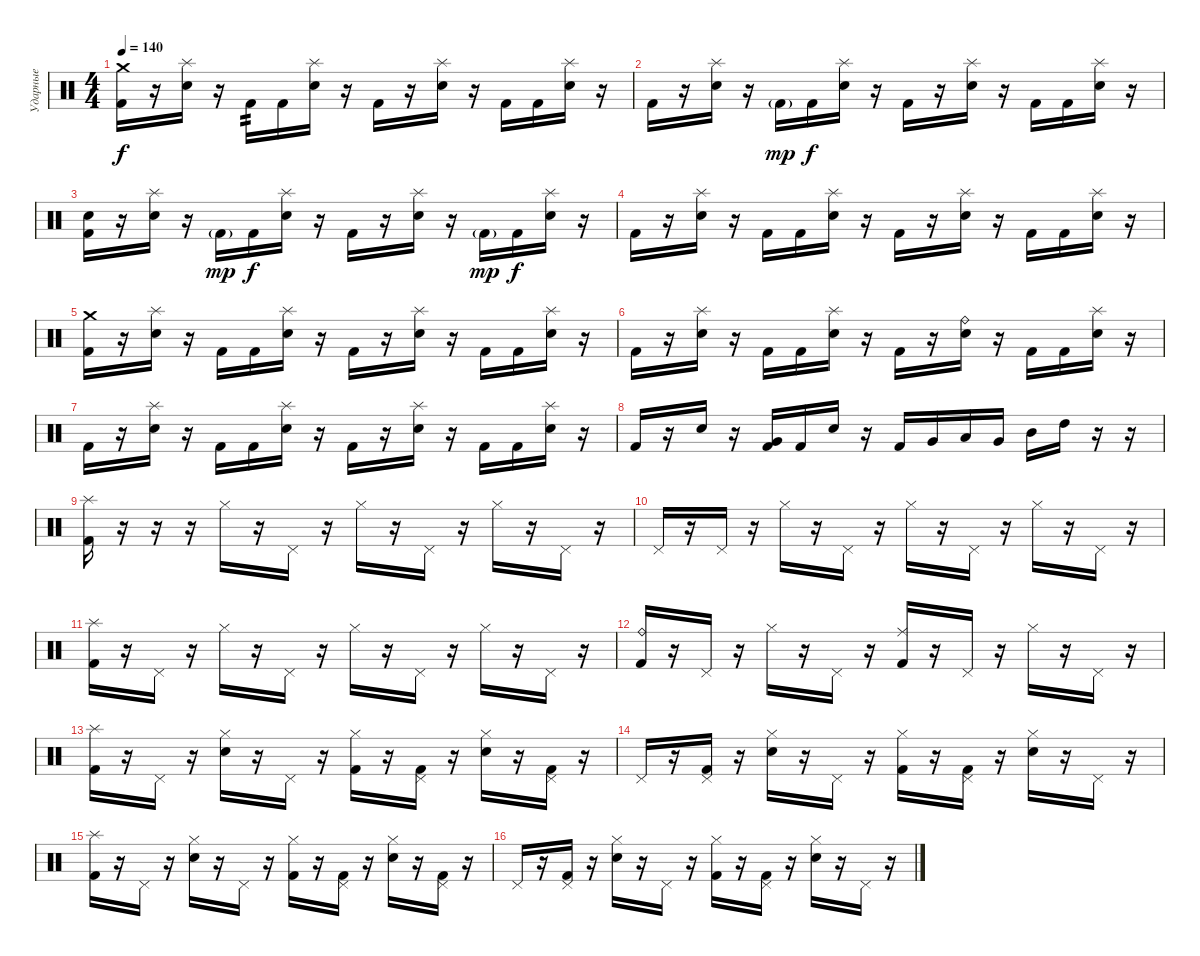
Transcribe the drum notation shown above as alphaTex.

\track ("Ударные" "Ударные") {instrument percussion bank 2}
\staff {score}
\articulation defaults
\ts (4 4)
\tempo 140
\clef neutral
\ks c
("Crash medium (hit)" "Kick (hit) 2").16{dy f} r.16 ("Splash (hit)" "Electric Snare (hit)").16 r.16 "Kick (hit) 2".16{tp 2} "Kick (hit) 2".16 ("Splash (hit)" "Electric Snare (hit)").16 r.16 "Kick (hit) 2".16 r.16 ("Splash (hit)" "Electric Snare (hit)").16 r.16 "Kick (hit) 2".16 "Kick (hit) 2".16 ("Splash (hit)" "Electric Snare (hit)").16 r.16 |
"Kick (hit) 2".16 r.16 ("Splash (hit)" "Electric Snare (hit)").16 r.16 "Kick (hit) 2"{g}.16{dy mp} "Kick (hit) 2".16{dy f} ("Splash (hit)" "Electric Snare (hit)").16 r.16 "Kick (hit) 2".16 r.16 ("Splash (hit)" "Electric Snare (hit)").16 r.16 "Kick (hit) 2".16 "Kick (hit) 2".16 ("Splash (hit)" "Electric Snare (hit)").16 r.16 |
("Snare (hit)" "Kick (hit) 2").16 r.16 ("Splash (hit)" "Electric Snare (hit)").16 r.16 "Kick (hit) 2"{g}.16{dy mp} "Kick (hit) 2".16{dy f} ("Splash (hit)" "Electric Snare (hit)").16 r.16 "Kick (hit) 2".16 r.16 ("Splash (hit)" "Electric Snare (hit)").16 r.16 "Kick (hit) 2"{g}.16{dy mp} "Kick (hit) 2".16{dy f} ("Splash (hit)" "Electric Snare (hit)").16 r.16 |
"Kick (hit) 2".16 r.16 ("Splash (hit)" "Electric Snare (hit)").16 r.16 "Kick (hit) 2".16 "Kick (hit) 2".16 ("Splash (hit)" "Electric Snare (hit)").16 r.16 "Kick (hit) 2".16 r.16 ("Splash (hit)" "Electric Snare (hit)").16 r.16 "Kick (hit) 2".16 "Kick (hit) 2".16 ("Splash (hit)" "Electric Snare (hit)").16 r.16 |
("Crash medium (hit)" "Kick (hit) 2").16 r.16 ("Splash (hit)" "Electric Snare (hit)").16 r.16 "Kick (hit) 2".16 "Kick (hit) 2".16 ("Splash (hit)" "Electric Snare (hit)").16 r.16 "Kick (hit) 2".16 r.16 ("Splash (hit)" "Electric Snare (hit)").16 r.16 "Kick (hit) 2".16 "Kick (hit) 2".16 ("Splash (hit)" "Electric Snare (hit)").16 r.16 |
"Kick (hit) 2".16 r.16 ("Splash (hit)" "Electric Snare (hit)").16 r.16 "Kick (hit) 2".16 "Kick (hit) 2".16 ("Splash (hit)" "Electric Snare (hit)").16 r.16 "Kick (hit) 2".16 r.16 ("Ride (bell)" "Electric Snare (hit)").16 r.16 "Kick (hit) 2".16 "Kick (hit) 2".16 ("Splash (hit)" "Electric Snare (hit)").16 r.16 |
"Kick (hit) 2".16 r.16 ("Splash (hit)" "Electric Snare (hit)").16 r.16 "Kick (hit) 2".16 "Kick (hit) 2".16 ("Splash (hit)" "Electric Snare (hit)").16 r.16 "Kick (hit) 2".16 r.16 ("Splash (hit)" "Electric Snare (hit)").16 r.16 "Kick (hit) 2".16 "Kick (hit) 2".16 ("Splash (hit)" "Electric Snare (hit)").16 r.16 |
"Kick (hit) 2".16 r.16 "Electric Snare (hit)".16 r.16 ("Very Low Tom (hit)" "Kick (hit) 2").16 "Kick (hit) 2".16 "Electric Snare (hit)".16 r.16 "Kick (hit) 2".16 "Very Low Tom (hit)".16 "Low Tom (hit)".16 "Very Low Tom (hit)".16 "Mid Tom (hit)".16 "High Tom (hit)".16 r.16 r.16 |
("Splash (hit)" "Kick (hit) 2").16 r.16 r.16 r.16 "Hi-Hat (closed)".16 r.16 "Pedal Hi-Hat (hit)".16 r.16 "Hi-Hat (closed)".16 r.16 "Pedal Hi-Hat (hit)".16 r.16 "Hi-Hat (closed)".16 r.16 "Pedal Hi-Hat (hit)".16 r.16 |
"Pedal Hi-Hat (hit)".16 r.16 "Pedal Hi-Hat (hit)".16 r.16 "Hi-Hat (closed)".16 r.16 "Pedal Hi-Hat (hit)".16 r.16 "Hi-Hat (closed)".16 r.16 "Pedal Hi-Hat (hit)".16 r.16 "Hi-Hat (closed)".16 r.16 "Pedal Hi-Hat (hit)".16 r.16 |
("Splash (hit)" "Kick (hit) 2").16 r.16 "Pedal Hi-Hat (hit)".16 r.16 "Hi-Hat (closed)".16 r.16 "Pedal Hi-Hat (hit)".16 r.16 "Hi-Hat (closed)".16 r.16 "Pedal Hi-Hat (hit)".16 r.16 "Hi-Hat (closed)".16 r.16 "Pedal Hi-Hat (hit)".16 r.16 |
("Ride (bell)" "Kick (hit) 2").16 r.16 "Pedal Hi-Hat (hit)".16 r.16 "Hi-Hat (closed)".16 r.16 "Pedal Hi-Hat (hit)".16 r.16 ("Ride (middle)" "Kick (hit) 2").16 r.16 "Pedal Hi-Hat (hit)".16 r.16 "Hi-Hat (closed)".16 r.16 "Pedal Hi-Hat (hit)".16 r.16 |
("Splash (hit)" "Kick (hit) 2").16 r.16 "Pedal Hi-Hat (hit)".16 r.16 ("Hi-Hat (closed)" "Electric Snare (hit)").16 r.16 "Pedal Hi-Hat (hit)".16 r.16 ("Hi-Hat (closed)" "Kick (hit) 2").16 r.16 ("Pedal Hi-Hat (hit)" "Kick (hit) 2").16 r.16 ("Hi-Hat (closed)" "Electric Snare (hit)").16 r.16 ("Pedal Hi-Hat (hit)" "Kick (hit) 2").16 r.16 |
"Pedal Hi-Hat (hit)".16 r.16 ("Pedal Hi-Hat (hit)" "Kick (hit) 2").16 r.16 ("Hi-Hat (closed)" "Electric Snare (hit)").16 r.16 "Pedal Hi-Hat (hit)".16 r.16 ("Hi-Hat (closed)" "Kick (hit) 2").16 r.16 ("Pedal Hi-Hat (hit)" "Kick (hit) 2").16 r.16 ("Hi-Hat (closed)" "Electric Snare (hit)").16 r.16 "Pedal Hi-Hat (hit)".16 r.16 |
("Splash (hit)" "Kick (hit) 2").16 r.16 "Pedal Hi-Hat (hit)".16 r.16 ("Hi-Hat (closed)" "Electric Snare (hit)").16 r.16 "Pedal Hi-Hat (hit)".16 r.16 ("Hi-Hat (closed)" "Kick (hit) 2").16 r.16 ("Pedal Hi-Hat (hit)" "Kick (hit) 2").16 r.16 ("Hi-Hat (closed)" "Electric Snare (hit)").16 r.16 ("Pedal Hi-Hat (hit)" "Kick (hit) 2").16 r.16 |
"Pedal Hi-Hat (hit)".16 r.16 ("Pedal Hi-Hat (hit)" "Kick (hit) 2").16 r.16 ("Hi-Hat (closed)" "Electric Snare (hit)").16 r.16 "Pedal Hi-Hat (hit)".16 r.16 ("Hi-Hat (closed)" "Kick (hit) 2").16 r.16 ("Pedal Hi-Hat (hit)" "Kick (hit) 2").16 r.16 ("Hi-Hat (closed)" "Electric Snare (hit)").16 r.16 "Pedal Hi-Hat (hit)".16 r.16
